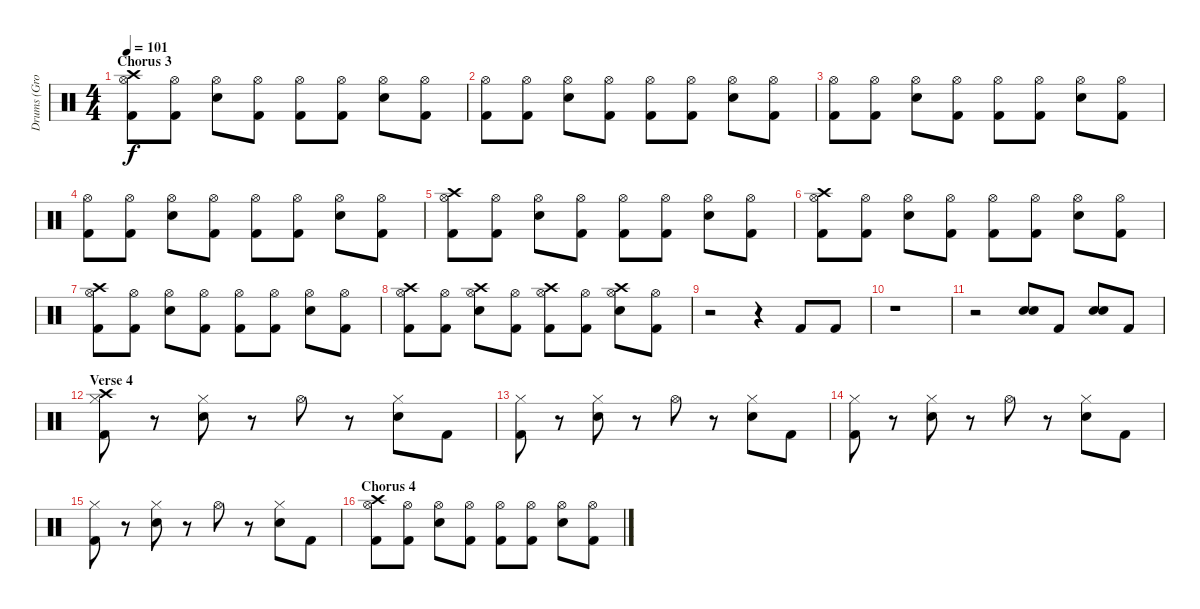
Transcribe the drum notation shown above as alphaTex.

\track ("Drums (Grohl)" "Drums (Gro") {instrument percussion}
\staff {score}
\articulation defaults
\ts (4 4)
\section ("" "Chorus 3")
\tempo 101
\clef neutral
\ks c
("Hi-Hat (open)" "Kick (hit) 2" "Crash high (hit)").8{dy f} ("Hi-Hat (open)" "Kick (hit) 2").8 ("Hi-Hat (open)" "Snare (hit) 2").8 ("Hi-Hat (open)" "Kick (hit) 2").8 ("Hi-Hat (open)" "Kick (hit) 2").8 ("Hi-Hat (open)" "Kick (hit) 2").8 ("Hi-Hat (open)" "Snare (hit) 2").8 ("Hi-Hat (open)" "Kick (hit) 2").8 |
("Hi-Hat (open)" "Kick (hit) 2").8 ("Hi-Hat (open)" "Kick (hit) 2").8 ("Hi-Hat (open)" "Snare (hit) 2").8 ("Hi-Hat (open)" "Kick (hit) 2").8 ("Hi-Hat (open)" "Kick (hit) 2").8 ("Hi-Hat (open)" "Kick (hit) 2").8 ("Hi-Hat (open)" "Snare (hit) 2").8 ("Hi-Hat (open)" "Kick (hit) 2").8 |
("Hi-Hat (open)" "Kick (hit) 2").8 ("Hi-Hat (open)" "Kick (hit) 2").8 ("Hi-Hat (open)" "Snare (hit) 2").8 ("Hi-Hat (open)" "Kick (hit) 2").8 ("Hi-Hat (open)" "Kick (hit) 2").8 ("Hi-Hat (open)" "Kick (hit) 2").8 ("Hi-Hat (open)" "Snare (hit) 2").8 ("Hi-Hat (open)" "Kick (hit) 2").8 |
("Hi-Hat (open)" "Kick (hit) 2").8 ("Hi-Hat (open)" "Kick (hit) 2").8 ("Hi-Hat (open)" "Snare (hit) 2").8 ("Hi-Hat (open)" "Kick (hit) 2").8 ("Hi-Hat (open)" "Kick (hit) 2").8 ("Hi-Hat (open)" "Kick (hit) 2").8 ("Hi-Hat (open)" "Snare (hit) 2").8 ("Hi-Hat (open)" "Kick (hit) 2").8 |
("Hi-Hat (open)" "Kick (hit) 2" "Crash high (hit)").8 ("Hi-Hat (open)" "Kick (hit) 2").8 ("Hi-Hat (open)" "Snare (hit) 2").8 ("Hi-Hat (open)" "Kick (hit) 2").8 ("Hi-Hat (open)" "Kick (hit) 2").8 ("Hi-Hat (open)" "Kick (hit) 2").8 ("Hi-Hat (open)" "Snare (hit) 2").8 ("Hi-Hat (open)" "Kick (hit) 2").8 |
("Hi-Hat (open)" "Kick (hit) 2" "Crash high (hit)").8 ("Hi-Hat (open)" "Kick (hit) 2").8 ("Hi-Hat (open)" "Snare (hit) 2").8 ("Hi-Hat (open)" "Kick (hit) 2").8 ("Hi-Hat (open)" "Kick (hit) 2").8 ("Hi-Hat (open)" "Kick (hit) 2").8 ("Hi-Hat (open)" "Snare (hit) 2").8 ("Hi-Hat (open)" "Kick (hit) 2").8 |
("Hi-Hat (open)" "Kick (hit) 2" "Crash high (hit)").8 ("Hi-Hat (open)" "Kick (hit) 2").8 ("Hi-Hat (open)" "Snare (hit) 2").8 ("Hi-Hat (open)" "Kick (hit) 2").8 ("Hi-Hat (open)" "Kick (hit) 2").8 ("Hi-Hat (open)" "Kick (hit) 2").8 ("Hi-Hat (open)" "Snare (hit) 2").8 ("Hi-Hat (open)" "Kick (hit) 2").8 |
("Hi-Hat (open)" "Kick (hit) 2" "Crash high (hit)").8 ("Hi-Hat (open)" "Kick (hit) 2").8 ("Hi-Hat (open)" "Snare (hit) 2" "Crash high (hit)").8 ("Hi-Hat (open)" "Kick (hit) 2").8 ("Hi-Hat (open)" "Kick (hit) 2" "Crash high (hit)").8 ("Hi-Hat (open)" "Kick (hit) 2").8 ("Hi-Hat (open)" "Snare (hit) 2" "Crash high (hit)").8 ("Hi-Hat (open)" "Kick (hit) 2").8 |
r.2 r.4 "Kick (hit) 2".8 "Kick (hit) 2".8 |
r.1 |
r.2 ("Snare (hit) 2" "Snare (hit) 2").8 "Kick (hit) 2".8 ("Snare (hit) 2" "Snare (hit) 2").8 "Kick (hit) 2".8 |
\section ("" "Verse 4")
("Hi-Hat (closed)" "Kick (hit) 2" "Crash high (hit)").8 r.8 ("Hi-Hat (closed)" "Snare (hit) 2").8 r.8 "Hi-Hat (open)".8 r.8 ("Hi-Hat (closed)" "Snare (hit) 2").8 "Kick (hit) 2".8 |
("Hi-Hat (closed)" "Kick (hit) 2").8 r.8 ("Hi-Hat (closed)" "Snare (hit) 2").8 r.8 "Hi-Hat (open)".8 r.8 ("Hi-Hat (closed)" "Snare (hit) 2").8 "Kick (hit) 2".8 |
("Hi-Hat (closed)" "Kick (hit) 2").8 r.8 ("Hi-Hat (closed)" "Snare (hit) 2").8 r.8 "Hi-Hat (open)".8 r.8 ("Hi-Hat (closed)" "Snare (hit) 2").8 "Kick (hit) 2".8 |
("Hi-Hat (closed)" "Kick (hit) 2").8 r.8 ("Hi-Hat (closed)" "Snare (hit) 2").8 r.8 "Hi-Hat (open)".8 r.8 ("Hi-Hat (closed)" "Snare (hit) 2").8 "Kick (hit) 2".8 |
\section ("" "Chorus 4")
("Hi-Hat (open)" "Kick (hit) 2" "Crash high (hit)").8 ("Hi-Hat (open)" "Kick (hit) 2").8 ("Hi-Hat (open)" "Snare (hit) 2").8 ("Hi-Hat (open)" "Kick (hit) 2").8 ("Hi-Hat (open)" "Kick (hit) 2").8 ("Hi-Hat (open)" "Kick (hit) 2").8 ("Hi-Hat (open)" "Snare (hit) 2").8 ("Hi-Hat (open)" "Kick (hit) 2").8
